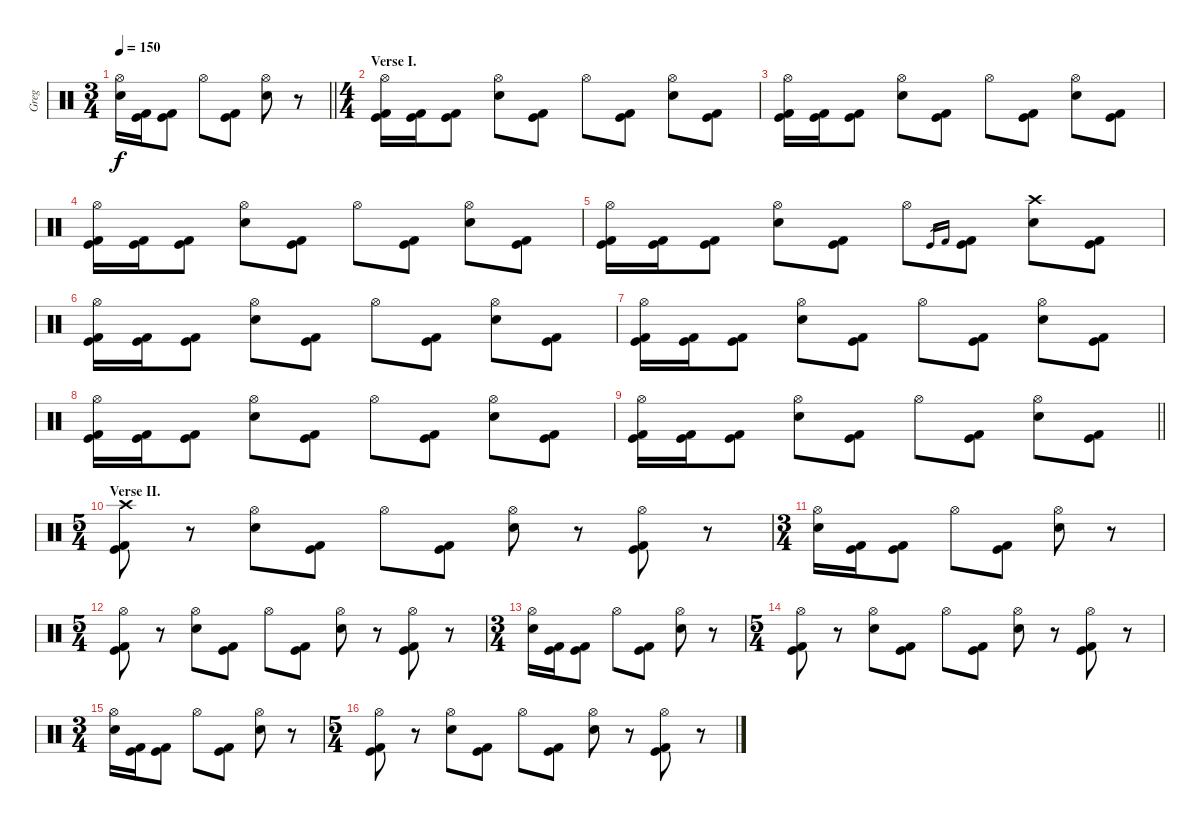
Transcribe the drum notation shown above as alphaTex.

\track ("Greg" "Greg") {instrument percussion}
\staff {score}
\articulation defaults
\ts (3 4)
\tempo 150
\clef neutral
\barLineRight lightlight
\ks c
("Hi-Hat (open)" "Snare (hit) 2").16{dy f} ("Kick (hit)" "Kick (hit) 2").16 ("Kick (hit)" "Kick (hit) 2").8 "Hi-Hat (open)".8 ("Kick (hit)" "Kick (hit) 2").8 ("Hi-Hat (open)" "Snare (hit) 2").8 r.8 |
\ts (4 4)
\section ("" "Verse I.")
("Hi-Hat (open)" "Kick (hit)" "Kick (hit) 2").16 ("Kick (hit)" "Kick (hit) 2").16 ("Kick (hit)" "Kick (hit) 2").8 ("Hi-Hat (open)" "Snare (hit) 2").8 ("Kick (hit)" "Kick (hit) 2").8 "Hi-Hat (open)".8 ("Kick (hit)" "Kick (hit) 2").8 ("Hi-Hat (open)" "Snare (hit) 2").8 ("Kick (hit)" "Kick (hit) 2").8 |
("Hi-Hat (open)" "Kick (hit)" "Kick (hit) 2").16 ("Kick (hit)" "Kick (hit) 2").16 ("Kick (hit)" "Kick (hit) 2").8 ("Hi-Hat (open)" "Snare (hit) 2").8 ("Kick (hit)" "Kick (hit) 2").8 "Hi-Hat (open)".8 ("Kick (hit)" "Kick (hit) 2").8 ("Hi-Hat (open)" "Snare (hit) 2").8 ("Kick (hit)" "Kick (hit) 2").8 |
("Hi-Hat (open)" "Kick (hit)" "Kick (hit) 2").16 ("Kick (hit)" "Kick (hit) 2").16 ("Kick (hit)" "Kick (hit) 2").8 ("Hi-Hat (open)" "Snare (hit) 2").8 ("Kick (hit)" "Kick (hit) 2").8 "Hi-Hat (open)".8 ("Kick (hit)" "Kick (hit) 2").8 ("Hi-Hat (open)" "Snare (hit) 2").8 ("Kick (hit)" "Kick (hit) 2").8 |
("Hi-Hat (open)" "Kick (hit)" "Kick (hit) 2").16 ("Kick (hit)" "Kick (hit) 2").16 ("Kick (hit)" "Kick (hit) 2").8 ("Hi-Hat (open)" "Snare (hit) 2").8 ("Kick (hit)" "Kick (hit) 2").8 "Hi-Hat (open)".8 "Kick (hit)".16{gr} "Kick (hit) 2".16{gr} ("Kick (hit)" "Kick (hit) 2").8 ("Crash high (hit)" "Snare (hit) 2").8 ("Kick (hit)" "Kick (hit) 2").8 |
("Hi-Hat (open)" "Kick (hit)" "Kick (hit) 2").16 ("Kick (hit)" "Kick (hit) 2").16 ("Kick (hit)" "Kick (hit) 2").8 ("Hi-Hat (open)" "Snare (hit) 2").8 ("Kick (hit)" "Kick (hit) 2").8 "Hi-Hat (open)".8 ("Kick (hit)" "Kick (hit) 2").8 ("Hi-Hat (open)" "Snare (hit) 2").8 ("Kick (hit)" "Kick (hit) 2").8 |
("Hi-Hat (open)" "Kick (hit)" "Kick (hit) 2").16 ("Kick (hit)" "Kick (hit) 2").16 ("Kick (hit)" "Kick (hit) 2").8 ("Hi-Hat (open)" "Snare (hit) 2").8 ("Kick (hit)" "Kick (hit) 2").8 "Hi-Hat (open)".8 ("Kick (hit)" "Kick (hit) 2").8 ("Hi-Hat (open)" "Snare (hit) 2").8 ("Kick (hit)" "Kick (hit) 2").8 |
("Hi-Hat (open)" "Kick (hit)" "Kick (hit) 2").16 ("Kick (hit)" "Kick (hit) 2").16 ("Kick (hit)" "Kick (hit) 2").8 ("Hi-Hat (open)" "Snare (hit) 2").8 ("Kick (hit)" "Kick (hit) 2").8 "Hi-Hat (open)".8 ("Kick (hit)" "Kick (hit) 2").8 ("Hi-Hat (open)" "Snare (hit) 2").8 ("Kick (hit)" "Kick (hit) 2").8 |
\barLineRight lightlight
("Hi-Hat (open)" "Kick (hit)" "Kick (hit) 2").16 ("Kick (hit)" "Kick (hit) 2").16 ("Kick (hit)" "Kick (hit) 2").8 ("Hi-Hat (open)" "Snare (hit) 2").8 ("Kick (hit)" "Kick (hit) 2").8 "Hi-Hat (open)".8 ("Kick (hit)" "Kick (hit) 2").8 ("Hi-Hat (open)" "Snare (hit) 2").8 ("Kick (hit)" "Kick (hit) 2").8 |
\ts (5 4)
\section ("" "Verse II.")
("Crash high (hit)" "Kick (hit)" "Kick (hit) 2").8 r.8 ("Hi-Hat (open)" "Snare (hit) 2").8 ("Kick (hit)" "Kick (hit) 2").8 "Hi-Hat (open)".8 ("Kick (hit)" "Kick (hit) 2").8 ("Hi-Hat (open)" "Snare (hit) 2").8 r.8 ("Hi-Hat (open)" "Kick (hit)" "Kick (hit) 2").8 r.8 |
\ts (3 4)
("Hi-Hat (open)" "Snare (hit) 2").16 ("Kick (hit)" "Kick (hit) 2").16 ("Kick (hit)" "Kick (hit) 2").8 "Hi-Hat (open)".8 ("Kick (hit)" "Kick (hit) 2").8 ("Hi-Hat (open)" "Snare (hit) 2").8 r.8 |
\ts (5 4)
("Hi-Hat (open)" "Kick (hit)" "Kick (hit) 2").8 r.8 ("Hi-Hat (open)" "Snare (hit) 2").8 ("Kick (hit)" "Kick (hit) 2").8 "Hi-Hat (open)".8 ("Kick (hit)" "Kick (hit) 2").8 ("Hi-Hat (open)" "Snare (hit) 2").8 r.8 ("Hi-Hat (open)" "Kick (hit)" "Kick (hit) 2").8 r.8 |
\ts (3 4)
("Hi-Hat (open)" "Snare (hit) 2").16 ("Kick (hit)" "Kick (hit) 2").16 ("Kick (hit)" "Kick (hit) 2").8 "Hi-Hat (open)".8 ("Kick (hit)" "Kick (hit) 2").8 ("Hi-Hat (open)" "Snare (hit) 2").8 r.8 |
\ts (5 4)
("Hi-Hat (open)" "Kick (hit)" "Kick (hit) 2").8 r.8 ("Hi-Hat (open)" "Snare (hit) 2").8 ("Kick (hit)" "Kick (hit) 2").8 "Hi-Hat (open)".8 ("Kick (hit)" "Kick (hit) 2").8 ("Hi-Hat (open)" "Snare (hit) 2").8 r.8 ("Hi-Hat (open)" "Kick (hit)" "Kick (hit) 2").8 r.8 |
\ts (3 4)
("Hi-Hat (open)" "Snare (hit) 2").16 ("Kick (hit)" "Kick (hit) 2").16 ("Kick (hit)" "Kick (hit) 2").8 "Hi-Hat (open)".8 ("Kick (hit)" "Kick (hit) 2").8 ("Hi-Hat (open)" "Snare (hit) 2").8 r.8 |
\ts (5 4)
("Hi-Hat (open)" "Kick (hit)" "Kick (hit) 2").8 r.8 ("Hi-Hat (open)" "Snare (hit) 2").8 ("Kick (hit)" "Kick (hit) 2").8 "Hi-Hat (open)".8 ("Kick (hit)" "Kick (hit) 2").8 ("Hi-Hat (open)" "Snare (hit) 2").8 r.8 ("Hi-Hat (open)" "Kick (hit)" "Kick (hit) 2").8 r.8
